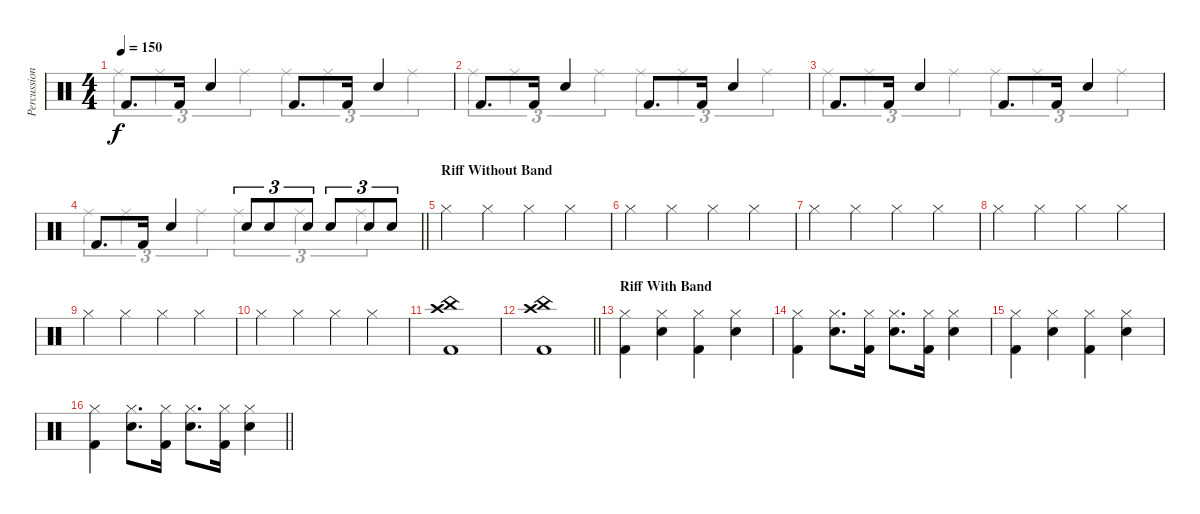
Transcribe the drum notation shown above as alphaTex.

\track ("Percussion" "Percussion") {instrument percussion}
\staff {score}
\articulation defaults
\voice
\ts (4 4)
\tempo 150
\clef neutral
\ks c "Kick (hit) 2".8{d dy f} "Kick (hit) 2".16 "Snare (hit) 2".4 "Kick (hit) 2".8{d} "Kick (hit) 2".16 "Snare (hit) 2".4
|
"Kick (hit) 2".8{d} "Kick (hit) 2".16 "Snare (hit) 2".4 "Kick (hit) 2".8{d} "Kick (hit) 2".16 "Snare (hit) 2".4 |
"Kick (hit) 2".8{d} "Kick (hit) 2".16 "Snare (hit) 2".4 "Kick (hit) 2".8{d} "Kick (hit) 2".16 "Snare (hit) 2".4 |
\barLineRight lightlight "Kick (hit) 2".8{d} "Kick (hit) 2".16 "Snare (hit) 2".4 "Snare (hit) 2".8{tu (3 2)} "Snare (hit) 2".8{tu (3 2)} "Snare (hit) 2".8{tu (3 2)} "Snare (hit) 2".8{tu (3 2)} "Snare (hit) 2".8{tu (3 2)} "Snare (hit) 2".8{tu (3 2)}
|
\section ("" "Riff Without Band")
"Hi-Hat (closed)".4 "Hi-Hat (closed)".4 "Hi-Hat (closed)".4 "Hi-Hat (closed)".4 |
"Hi-Hat (closed)".4 "Hi-Hat (closed)".4 "Hi-Hat (closed)".4 "Hi-Hat (closed)".4 |
"Hi-Hat (closed)".4 "Hi-Hat (closed)".4 "Hi-Hat (closed)".4 "Hi-Hat (closed)".4 |
"Hi-Hat (closed)".4 "Hi-Hat (closed)".4 "Hi-Hat (closed)".4 "Hi-Hat (closed)".4 |
"Hi-Hat (closed)".4 "Hi-Hat (closed)".4 "Hi-Hat (closed)".4 "Hi-Hat (closed)".4 |
"Hi-Hat (closed)".4 "Hi-Hat (closed)".4 "Hi-Hat (closed)".4 "Hi-Hat (closed)".4 |
("China (hit)" "Kick (hit) 2" "Crash high (hit)").1 |
\barLineRight lightlight
("China (hit)" "Kick (hit) 2" "Crash high (hit)").1 |
\section ("" "Riff With Band")
("Kick (hit) 2" "Hi-Hat (closed)").4 ("Snare (hit) 2" "Hi-Hat (closed)").4 ("Kick (hit) 2" "Hi-Hat (closed)").4 ("Snare (hit) 2" "Hi-Hat (closed)").4 |
("Kick (hit) 2" "Hi-Hat (closed)").4 ("Snare (hit) 2" "Hi-Hat (closed)").8{d} ("Kick (hit) 2" "Hi-Hat (closed)").16 ("Snare (hit) 2" "Hi-Hat (closed)").8{d} ("Kick (hit) 2" "Hi-Hat (closed)").16 ("Snare (hit) 2" "Hi-Hat (closed)").4 |
("Kick (hit) 2" "Hi-Hat (closed)").4 ("Snare (hit) 2" "Hi-Hat (closed)").4 ("Kick (hit) 2" "Hi-Hat (closed)").4 ("Snare (hit) 2" "Hi-Hat (closed)").4 |
\barLineRight lightlight
("Kick (hit) 2" "Hi-Hat (closed)").4 ("Snare (hit) 2" "Hi-Hat (closed)").8{d} ("Kick (hit) 2" "Hi-Hat (closed)").16 ("Snare (hit) 2" "Hi-Hat (closed)").8{d} ("Kick (hit) 2" "Hi-Hat (closed)").16 ("Snare (hit) 2" "Hi-Hat (closed)").4
\voice
\clef neutral
\ottava regular
\simile none
\ks c "Ride (middle)".4{tu (3 2) dy f} "Ride (middle)".4{tu (3 2)} "Ride (middle)".4{tu (3 2)} "Ride (middle)".4{tu (3 2)} "Ride (middle)".4{tu (3 2)} "Ride (middle)".4{tu (3 2)}
|
"Ride (middle)".4{tu (3 2)} "Ride (middle)".4{tu (3 2)} "Ride (middle)".4{tu (3 2)} "Ride (middle)".4{tu (3 2)} "Ride (middle)".4{tu (3 2)} "Ride (middle)".4{tu (3 2)} |
"Ride (middle)".4{tu (3 2)} "Ride (middle)".4{tu (3 2)} "Ride (middle)".4{tu (3 2)} "Ride (middle)".4{tu (3 2)} "Ride (middle)".4{tu (3 2)} "Ride (middle)".4{tu (3 2)} |
\barLineRight lightlight "Ride (middle)".4{tu (3 2)} "Ride (middle)".4{tu (3 2)} "Ride (middle)".4{tu (3 2)} "Ride (middle)".4{tu (3 2)} "Ride (middle)".4{tu (3 2)} "Ride (middle)".4{tu (3 2)}
|
|
|
|
|
|
|
|
\barLineRight lightlight
|
|
|
|
\barLineRight lightlight
